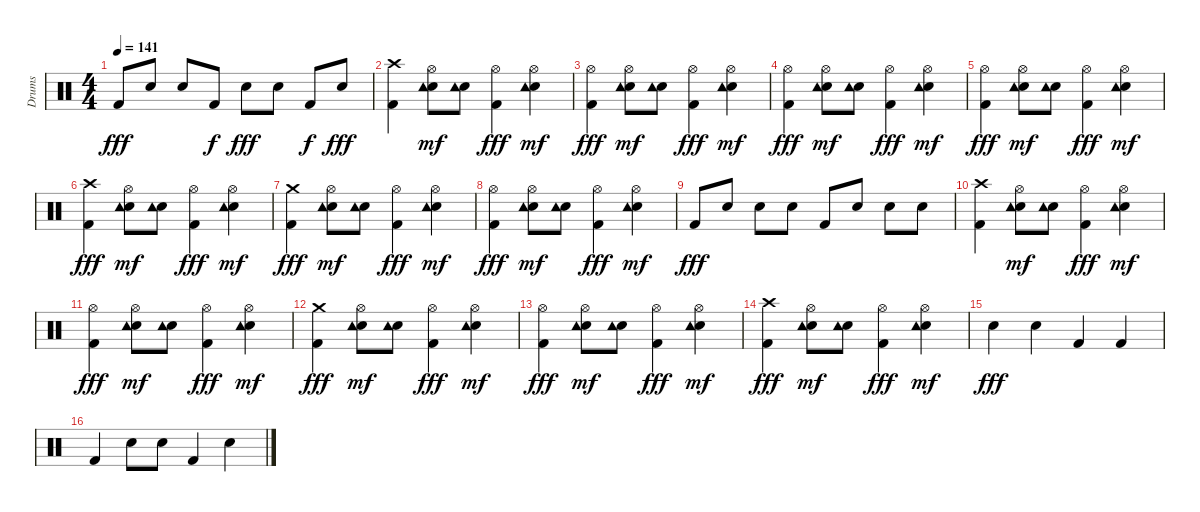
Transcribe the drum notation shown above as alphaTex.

\track ("Drums" "Drums") {instrument percussion}
\staff {score}
\articulation defaults
\ts (4 4)
\tempo 141
\clef neutral
\ks c "Kick (hit) 2".8{dy fff} "Electric Snare (hit)".8 "Electric Snare (hit)".8 "Kick (hit) 2".8{dy f} "Electric Snare (hit)".8{dy fff} "Electric Snare (hit)".8 "Kick (hit) 2".8{dy f} "Electric Snare (hit)".8{dy fff}
|
("Crash high (hit)" "Kick (hit) 2").4 ("Hi-Hat (open)" "Electric Snare (hit)" "Tambourine (hit)").8{dy mf} ("Electric Snare (hit)" "Tambourine (hit)").8 ("Hi-Hat (open)" "Kick (hit) 2").4{dy fff} ("Hi-Hat (open)" "Electric Snare (hit)" "Tambourine (hit)").4{dy mf} |
("Hi-Hat (open)" "Kick (hit) 2").4{dy fff} ("Hi-Hat (open)" "Electric Snare (hit)" "Tambourine (hit)").8{dy mf} ("Electric Snare (hit)" "Tambourine (hit)").8 ("Hi-Hat (open)" "Kick (hit) 2").4{dy fff} ("Hi-Hat (open)" "Electric Snare (hit)" "Tambourine (hit)").4{dy mf} |
("Hi-Hat (open)" "Kick (hit) 2").4{dy fff} ("Hi-Hat (open)" "Electric Snare (hit)" "Tambourine (hit)").8{dy mf} ("Electric Snare (hit)" "Tambourine (hit)").8 ("Hi-Hat (open)" "Kick (hit) 2").4{dy fff} ("Hi-Hat (open)" "Electric Snare (hit)" "Tambourine (hit)").4{dy mf} |
("Hi-Hat (open)" "Kick (hit) 2").4{dy fff} ("Hi-Hat (open)" "Electric Snare (hit)" "Tambourine (hit)").8{dy mf} ("Electric Snare (hit)" "Tambourine (hit)").8 ("Hi-Hat (open)" "Kick (hit) 2").4{dy fff} ("Hi-Hat (open)" "Electric Snare (hit)" "Tambourine (hit)").4{dy mf} |
("Crash high (hit)" "Kick (hit) 2").4{dy fff} ("Hi-Hat (open)" "Electric Snare (hit)" "Tambourine (hit)").8{dy mf} ("Electric Snare (hit)" "Tambourine (hit)").8 ("Hi-Hat (open)" "Kick (hit) 2").4{dy fff} ("Hi-Hat (open)" "Electric Snare (hit)" "Tambourine (hit)").4{dy mf} |
("Crash medium (hit)" "Kick (hit) 2").4{dy fff} ("Hi-Hat (open)" "Electric Snare (hit)" "Tambourine (hit)").8{dy mf} ("Electric Snare (hit)" "Tambourine (hit)").8 ("Hi-Hat (open)" "Kick (hit) 2").4{dy fff} ("Hi-Hat (open)" "Electric Snare (hit)" "Tambourine (hit)").4{dy mf} |
("Hi-Hat (open)" "Kick (hit) 2").4{dy fff} ("Hi-Hat (open)" "Electric Snare (hit)" "Tambourine (hit)").8{dy mf} ("Electric Snare (hit)" "Tambourine (hit)").8 ("Hi-Hat (open)" "Kick (hit) 2").4{dy fff} ("Hi-Hat (open)" "Electric Snare (hit)" "Tambourine (hit)").4{dy mf} |
"Kick (hit) 2".8{dy fff} "Electric Snare (hit)".8 "Electric Snare (hit)".8 "Electric Snare (hit)".8 "Kick (hit) 2".8 "Electric Snare (hit)".8 "Electric Snare (hit)".8 "Electric Snare (hit)".8 |
("Crash high (hit)" "Kick (hit) 2").4 ("Hi-Hat (open)" "Electric Snare (hit)" "Tambourine (hit)").8{dy mf} ("Electric Snare (hit)" "Tambourine (hit)").8 ("Hi-Hat (open)" "Kick (hit) 2").4{dy fff} ("Hi-Hat (open)" "Electric Snare (hit)" "Tambourine (hit)").4{dy mf} |
("Hi-Hat (open)" "Kick (hit) 2").4{dy fff} ("Hi-Hat (open)" "Electric Snare (hit)" "Tambourine (hit)").8{dy mf} ("Electric Snare (hit)" "Tambourine (hit)").8 ("Hi-Hat (open)" "Kick (hit) 2").4{dy fff} ("Hi-Hat (open)" "Electric Snare (hit)" "Tambourine (hit)").4{dy mf} |
("Crash medium (hit)" "Kick (hit) 2").4{dy fff} ("Hi-Hat (open)" "Electric Snare (hit)" "Tambourine (hit)").8{dy mf} ("Electric Snare (hit)" "Tambourine (hit)").8 ("Hi-Hat (open)" "Kick (hit) 2").4{dy fff} ("Hi-Hat (open)" "Electric Snare (hit)" "Tambourine (hit)").4{dy mf} |
("Hi-Hat (open)" "Kick (hit) 2").4{dy fff} ("Hi-Hat (open)" "Electric Snare (hit)" "Tambourine (hit)").8{dy mf} ("Electric Snare (hit)" "Tambourine (hit)").8 ("Hi-Hat (open)" "Kick (hit) 2").4{dy fff} ("Hi-Hat (open)" "Electric Snare (hit)" "Tambourine (hit)").4{dy mf} |
("Crash high (hit)" "Kick (hit) 2").4{dy fff} ("Hi-Hat (open)" "Electric Snare (hit)" "Tambourine (hit)").8{dy mf} ("Electric Snare (hit)" "Tambourine (hit)").8 ("Hi-Hat (open)" "Kick (hit) 2").4{dy fff} ("Hi-Hat (open)" "Electric Snare (hit)" "Tambourine (hit)").4{dy mf} |
"Electric Snare (hit)".4{dy fff} "Electric Snare (hit)".4 "Kick (hit) 2".4 "Kick (hit) 2".4 |
"Kick (hit) 2".4 "Electric Snare (hit)".8 "Electric Snare (hit)".8 "Kick (hit) 2".4 "Electric Snare (hit)".4
